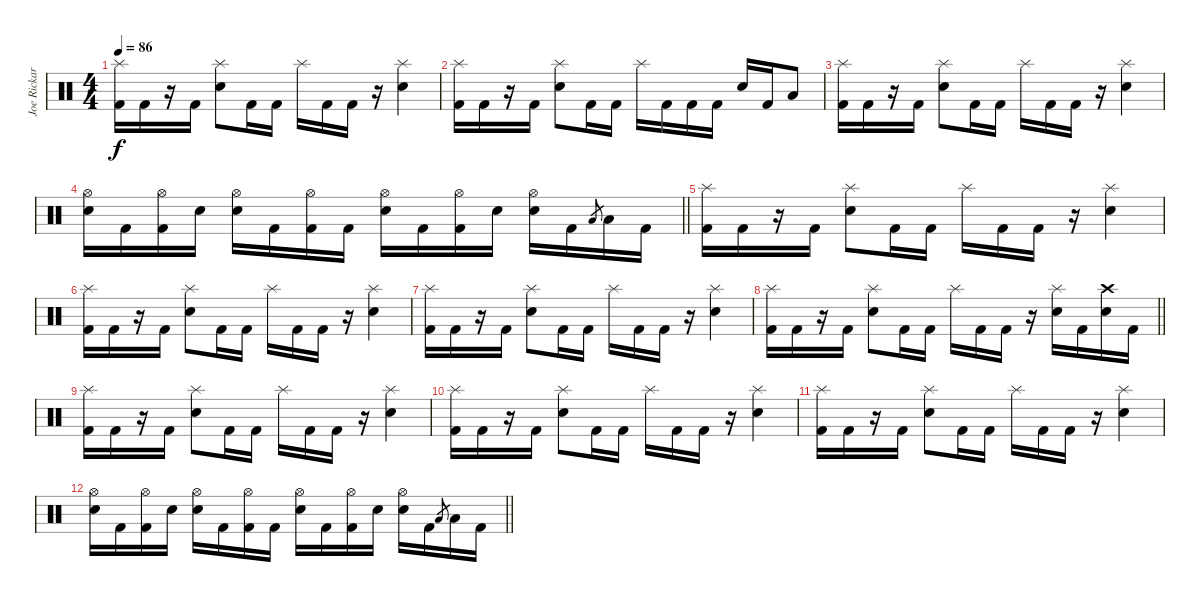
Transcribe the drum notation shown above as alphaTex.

\track ("Joe Rickard" "Joe Rickar") {instrument percussion}
\staff {score}
\articulation defaults
\ts (4 4)
\tempo 86
\clef neutral
\ks c
("Splash (hit)" "Kick (hit) 2").16{dy f} "Kick (hit) 2".16 r.16 "Kick (hit) 2".16 ("Splash (hit)" "Electric Snare (hit)").8 "Kick (hit) 2".16 "Kick (hit) 2".16 "Splash (hit)".16 "Kick (hit) 2".16 "Kick (hit) 2".16 r.16 ("Splash (hit)" "Electric Snare (hit)").4 |
("Splash (hit)" "Kick (hit) 2").16 "Kick (hit) 2".16 r.16 "Kick (hit) 2".16 ("Splash (hit)" "Electric Snare (hit)").8 "Kick (hit) 2".16 "Kick (hit) 2".16 "Splash (hit)".16 "Kick (hit) 2".16 "Kick (hit) 2".16 "Kick (hit) 2".16 "Electric Snare (hit)".16 "Kick (hit) 2".16 "Low Tom (hit)".8 |
("Splash (hit)" "Kick (hit) 2").16 "Kick (hit) 2".16 r.16 "Kick (hit) 2".16 ("Splash (hit)" "Electric Snare (hit)").8 "Kick (hit) 2".16 "Kick (hit) 2".16 "Splash (hit)".16 "Kick (hit) 2".16 "Kick (hit) 2".16 r.16 ("Splash (hit)" "Electric Snare (hit)").4 |
\barLineRight lightlight
("Hi-Hat (open)" "Electric Snare (hit)").16 "Kick (hit) 2".16 ("Hi-Hat (open)" "Kick (hit) 2").16 "Electric Snare (hit)".16 ("Hi-Hat (open)" "Electric Snare (hit)").16 "Kick (hit) 2".16 ("Hi-Hat (open)" "Kick (hit) 2").16 "Kick (hit) 2".16 ("Hi-Hat (open)" "Electric Snare (hit)").16 "Kick (hit) 2".16 ("Hi-Hat (open)" "Kick (hit) 2").16 "Electric Snare (hit)".16 ("Hi-Hat (open)" "Electric Snare (hit)").16 "Kick (hit) 2".16 "Low Tom (hit)".8{gr} "Low Tom (hit)".16 "Kick (hit) 2".16 |
("Splash (hit)" "Kick (hit) 2").16{volume 12} "Kick (hit) 2".16 r.16 "Kick (hit) 2".16 ("Splash (hit)" "Electric Snare (hit)").8 "Kick (hit) 2".16 "Kick (hit) 2".16 "Splash (hit)".16 "Kick (hit) 2".16 "Kick (hit) 2".16 r.16 ("Splash (hit)" "Electric Snare (hit)").4 |
("Splash (hit)" "Kick (hit) 2").16{volume 11} "Kick (hit) 2".16 r.16 "Kick (hit) 2".16 ("Splash (hit)" "Electric Snare (hit)").8 "Kick (hit) 2".16 "Kick (hit) 2".16 "Splash (hit)".16 "Kick (hit) 2".16 "Kick (hit) 2".16 r.16 ("Splash (hit)" "Electric Snare (hit)").4 |
("Splash (hit)" "Kick (hit) 2").16{volume 10} "Kick (hit) 2".16 r.16 "Kick (hit) 2".16 ("Splash (hit)" "Electric Snare (hit)").8 "Kick (hit) 2".16 "Kick (hit) 2".16 "Splash (hit)".16 "Kick (hit) 2".16 "Kick (hit) 2".16 r.16 ("Splash (hit)" "Electric Snare (hit)").4 |
\barLineRight lightlight
("Splash (hit)" "Kick (hit) 2").16{volume 9} "Kick (hit) 2".16 r.16 "Kick (hit) 2".16 ("Splash (hit)" "Electric Snare (hit)").8 "Kick (hit) 2".16 "Kick (hit) 2".16 "Splash (hit)".16 "Kick (hit) 2".16 "Kick (hit) 2".16 r.16 ("Splash (hit)" "Electric Snare (hit)").16 "Kick (hit) 2".16 ("Crash high (hit)" "Electric Snare (hit)").16 "Kick (hit) 2".16 |
("Splash (hit)" "Kick (hit) 2").16{volume 8} "Kick (hit) 2".16 r.16 "Kick (hit) 2".16 ("Splash (hit)" "Electric Snare (hit)").8 "Kick (hit) 2".16 "Kick (hit) 2".16 "Splash (hit)".16 "Kick (hit) 2".16 "Kick (hit) 2".16 r.16 ("Splash (hit)" "Electric Snare (hit)").4 |
("Splash (hit)" "Kick (hit) 2").16{volume 7} "Kick (hit) 2".16 r.16 "Kick (hit) 2".16 ("Splash (hit)" "Electric Snare (hit)").8 "Kick (hit) 2".16 "Kick (hit) 2".16 "Splash (hit)".16 "Kick (hit) 2".16 "Kick (hit) 2".16 r.16 ("Splash (hit)" "Electric Snare (hit)").4 |
("Splash (hit)" "Kick (hit) 2").16{volume 6} "Kick (hit) 2".16 r.16 "Kick (hit) 2".16 ("Splash (hit)" "Electric Snare (hit)").8 "Kick (hit) 2".16 "Kick (hit) 2".16 "Splash (hit)".16 "Kick (hit) 2".16 "Kick (hit) 2".16 r.16 ("Splash (hit)" "Electric Snare (hit)").4 |
\barLineRight lightlight
("Hi-Hat (open)" "Electric Snare (hit)").16{volume 5} "Kick (hit) 2".16 ("Hi-Hat (open)" "Kick (hit) 2").16 "Electric Snare (hit)".16 ("Hi-Hat (open)" "Electric Snare (hit)").16 "Kick (hit) 2".16 ("Hi-Hat (open)" "Kick (hit) 2").16 "Kick (hit) 2".16 ("Hi-Hat (open)" "Electric Snare (hit)").16 "Kick (hit) 2".16 ("Hi-Hat (open)" "Kick (hit) 2").16 "Electric Snare (hit)".16 ("Hi-Hat (open)" "Electric Snare (hit)").16 "Kick (hit) 2".16 "Low Tom (hit)".8{gr} "Low Tom (hit)".16 "Kick (hit) 2".16
